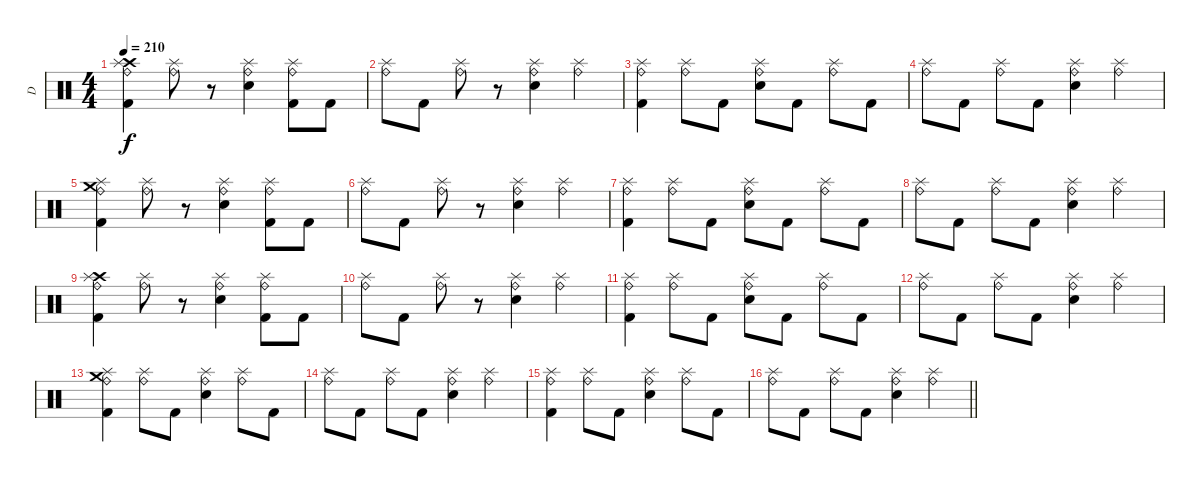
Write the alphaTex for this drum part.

\track ("D" "D") {instrument percussion}
\staff {score}
\articulation defaults
\ts (4 4)
\tempo 210
\clef neutral
\ks c
("Crash high (hit)" "Kick (hit) 2" "Ride (bell)" "Splash (hit)").4{dy f} ("Ride (bell)" "Splash (hit)").8 r.8 ("Electric Snare (hit)" "Ride (bell)" "Splash (hit)").4 ("Kick (hit) 2" "Ride (bell)" "Splash (hit)").8 "Kick (hit) 2".8 |
("Ride (bell)" "Splash (hit)").8 "Kick (hit) 2".8 ("Ride (bell)" "Splash (hit)").8 r.8 ("Electric Snare (hit)" "Ride (bell)" "Splash (hit)").4 ("Ride (bell)" "Splash (hit)").4 |
("Kick (hit) 2" "Ride (bell)" "Splash (hit)").4 ("Ride (bell)" "Splash (hit)").8 "Kick (hit) 2".8 ("Electric Snare (hit)" "Ride (bell)" "Splash (hit)").8 "Kick (hit) 2".8 ("Ride (bell)" "Splash (hit)").8 "Kick (hit) 2".8 |
("Ride (bell)" "Splash (hit)").8 "Kick (hit) 2".8 ("Ride (bell)" "Splash (hit)").8 "Kick (hit) 2".8 ("Electric Snare (hit)" "Ride (bell)" "Splash (hit)").4 ("Ride (bell)" "Splash (hit)").4 |
("Crash medium (hit)" "Kick (hit) 2" "Ride (bell)" "Splash (hit)").4 ("Ride (bell)" "Splash (hit)").8 r.8 ("Electric Snare (hit)" "Ride (bell)" "Splash (hit)").4 ("Kick (hit) 2" "Ride (bell)" "Splash (hit)").8 "Kick (hit) 2".8 |
("Ride (bell)" "Splash (hit)").8 "Kick (hit) 2".8 ("Ride (bell)" "Splash (hit)").8 r.8 ("Electric Snare (hit)" "Ride (bell)" "Splash (hit)").4 ("Ride (bell)" "Splash (hit)").4 |
("Kick (hit) 2" "Ride (bell)" "Splash (hit)").4 ("Ride (bell)" "Splash (hit)").8 "Kick (hit) 2".8 ("Electric Snare (hit)" "Ride (bell)" "Splash (hit)").8 "Kick (hit) 2".8 ("Ride (bell)" "Splash (hit)").8 "Kick (hit) 2".8 |
("Ride (bell)" "Splash (hit)").8 "Kick (hit) 2".8 ("Ride (bell)" "Splash (hit)").8 "Kick (hit) 2".8 ("Electric Snare (hit)" "Ride (bell)" "Splash (hit)").4 ("Ride (bell)" "Splash (hit)").4 |
("Crash high (hit)" "Kick (hit) 2" "Ride (bell)" "Splash (hit)").4 ("Ride (bell)" "Splash (hit)").8 r.8 ("Electric Snare (hit)" "Ride (bell)" "Splash (hit)").4 ("Kick (hit) 2" "Ride (bell)" "Splash (hit)").8 "Kick (hit) 2".8 |
("Ride (bell)" "Splash (hit)").8 "Kick (hit) 2".8 ("Ride (bell)" "Splash (hit)").8 r.8 ("Electric Snare (hit)" "Ride (bell)" "Splash (hit)").4 ("Ride (bell)" "Splash (hit)").4 |
("Kick (hit) 2" "Ride (bell)" "Splash (hit)").4 ("Ride (bell)" "Splash (hit)").8 "Kick (hit) 2".8 ("Electric Snare (hit)" "Ride (bell)" "Splash (hit)").8 "Kick (hit) 2".8 ("Ride (bell)" "Splash (hit)").8 "Kick (hit) 2".8 |
("Ride (bell)" "Splash (hit)").8 "Kick (hit) 2".8 ("Ride (bell)" "Splash (hit)").8 "Kick (hit) 2".8 ("Electric Snare (hit)" "Ride (bell)" "Splash (hit)").4 ("Ride (bell)" "Splash (hit)").4 |
("Crash medium (hit)" "Kick (hit) 2" "Ride (bell)" "Splash (hit)").4 ("Ride (bell)" "Splash (hit)").8 "Kick (hit) 2".8 ("Electric Snare (hit)" "Ride (bell)" "Splash (hit)").4 ("Ride (bell)" "Splash (hit)").8 "Kick (hit) 2".8 |
("Ride (bell)" "Splash (hit)").8 "Kick (hit) 2".8 ("Ride (bell)" "Splash (hit)").8 "Kick (hit) 2".8 ("Electric Snare (hit)" "Ride (bell)" "Splash (hit)").4 ("Ride (bell)" "Splash (hit)").4 |
("Kick (hit) 2" "Ride (bell)" "Splash (hit)").4 ("Ride (bell)" "Splash (hit)").8 "Kick (hit) 2".8 ("Electric Snare (hit)" "Ride (bell)" "Splash (hit)").4 ("Ride (bell)" "Splash (hit)").8 "Kick (hit) 2".8 |
\barLineRight lightlight
("Ride (bell)" "Splash (hit)").8 "Kick (hit) 2".8 ("Ride (bell)" "Splash (hit)").8 "Kick (hit) 2".8 ("Electric Snare (hit)" "Ride (bell)" "Splash (hit)").4 ("Ride (bell)" "Splash (hit)").4
